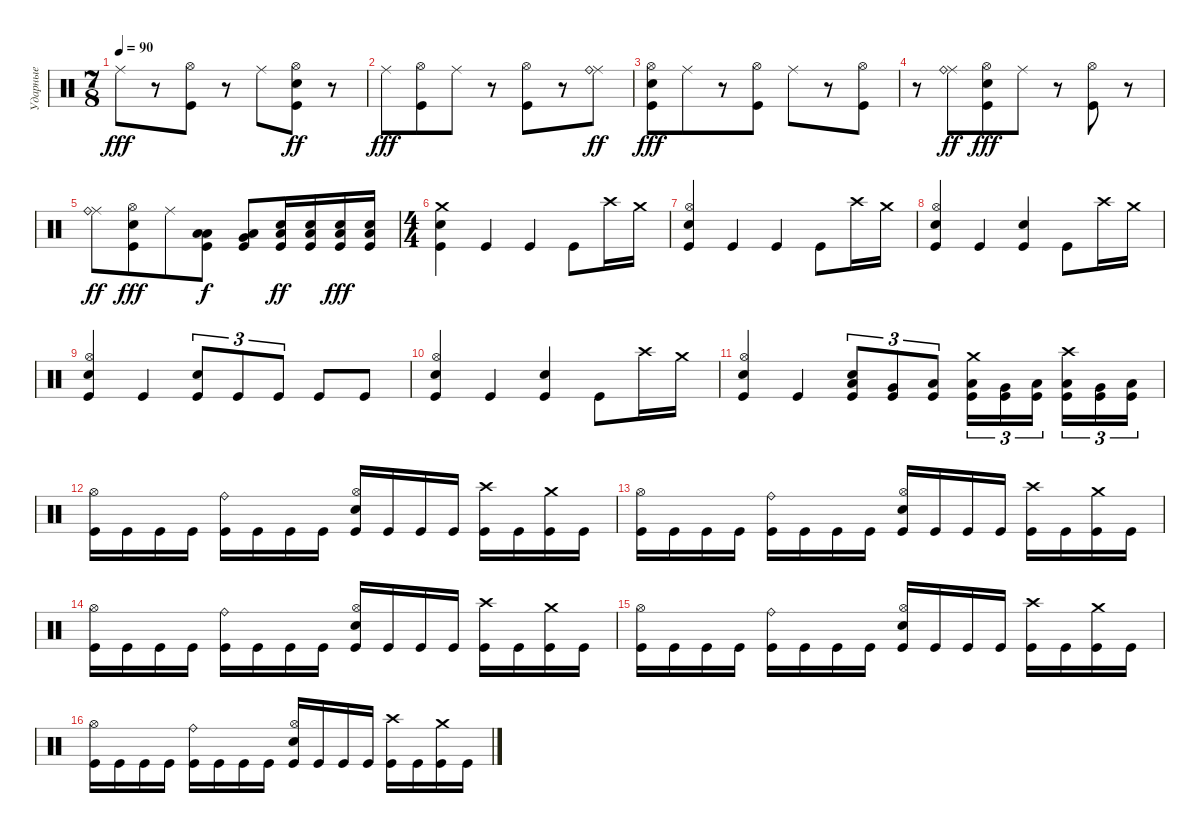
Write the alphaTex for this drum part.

\track ("Ударные" "Ударные") {instrument percussion}
\staff {score}
\articulation defaults
\ts (7 8)
\tempo 90
\clef neutral
\ks c "Ride (middle)".8{dy fff}
r.8 ("Kick (hit)" "Hi-Hat (open)").8 r.8 "Ride (middle)".8 ("Kick (hit)" "Hi-Hat (open)" "Snare (hit) 2").8{dy ff} r.8 |
"Ride (middle)".8{dy fff} ("Kick (hit)" "Hi-Hat (open)").8 "Ride (middle)".8 r.8 ("Kick (hit)" "Hi-Hat (open)").8 r.8 ("Ride (middle)" "Ride (bell)").8{dy ff} |
("Kick (hit)" "Hi-Hat (open)" "Snare (hit) 2").8{dy fff} "Ride (middle)".8 r.8 ("Kick (hit)" "Hi-Hat (open)").8 "Ride (middle)".8 r.8 ("Kick (hit)" "Hi-Hat (open)").8 |
r.8 ("Ride (middle)" "Ride (bell)").8{dy ff} ("Kick (hit)" "Hi-Hat (open)" "Snare (hit) 2").8{dy fff} "Ride (middle)".8 r.8 ("Kick (hit)" "Hi-Hat (open)").8 r.8 |
("Ride (middle)" "Ride (bell)").8{dy ff} ("Kick (hit)" "Hi-Hat (open)" "Snare (hit) 2").8{dy fff} "Ride (middle)".8 ("Kick (hit)" "Low Tom (hit)" "Low Floor Tom (hit)").8{dy f} ("Kick (hit)" "Very Low Tom (hit)" "Low Floor Tom (hit)").8 ("Kick (hit)" "Snare (hit) 2" "Low Floor Tom (hit)").16{dy ff} ("Kick (hit)" "Snare (hit) 2" "Low Floor Tom (hit)").16 ("Kick (hit)" "Snare (hit) 2" "Low Floor Tom (hit)").16{dy fff} ("Kick (hit)" "Snare (hit) 2" "Low Floor Tom (hit)").16 |
\ts (4 4)
("Kick (hit)" "Snare (hit) 2" "Crash medium (hit)").4 "Kick (hit)".4 "Kick (hit)".4 "Kick (hit)".8 "Crash high (hit)".16 "Crash medium (hit)".16 |
("Kick (hit)" "Snare (hit) 2" "Hi-Hat (open)").4 "Kick (hit)".4 "Kick (hit)".4 "Kick (hit)".8 "Crash high (hit)".16 "Crash medium (hit)".16 |
("Kick (hit)" "Snare (hit) 2" "Hi-Hat (open)").4 "Kick (hit)".4 ("Kick (hit)" "Snare (hit) 2").4 "Kick (hit)".8 "Crash high (hit)".16 "Crash medium (hit)".16 |
("Kick (hit)" "Snare (hit) 2" "Hi-Hat (open)").4 "Kick (hit)".4 ("Kick (hit)" "Snare (hit) 2").8{tu (3 2)} "Kick (hit)".8{tu (3 2)} "Kick (hit)".8{tu (3 2)} "Kick (hit)".8 "Kick (hit)".8 |
("Kick (hit)" "Snare (hit) 2" "Hi-Hat (open)").4 "Kick (hit)".4 ("Kick (hit)" "Snare (hit) 2").4 "Kick (hit)".8 "Crash high (hit)".16 "Crash medium (hit)".16 |
("Kick (hit)" "Snare (hit) 2" "Hi-Hat (open)").4 "Kick (hit)".4 ("Low Tom (hit)" "Kick (hit)" "Snare (hit) 2").8{tu (3 2)} ("Very Low Tom (hit)" "Kick (hit)").8{tu (3 2)} ("Low Floor Tom (hit)" "Kick (hit)").8{tu (3 2)} ("Low Tom (hit)" "Kick (hit)" "Crash medium (hit)").16{tu (3 2)} ("Very Low Tom (hit)" "Kick (hit)").16{tu (3 2)} ("Low Floor Tom (hit)" "Kick (hit)").16{tu (3 2) beam splitsecondary} ("Low Tom (hit)" "Kick (hit)" "Crash high (hit)").16{tu (3 2)} ("Very Low Tom (hit)" "Kick (hit)").16{tu (3 2)} ("Low Floor Tom (hit)" "Kick (hit)").16{tu (3 2)} |
("Kick (hit)" "Hi-Hat (open)").16 "Kick (hit)".16 "Kick (hit)".16 "Kick (hit)".16 ("Kick (hit)" "Ride (bell)").16 "Kick (hit)".16 "Kick (hit)".16 "Kick (hit)".16 ("Kick (hit)" "Snare (hit) 2" "Hi-Hat (open)").16 "Kick (hit)".16 "Kick (hit)".16 "Kick (hit)".16 ("Kick (hit)" "Crash high (hit)").16 "Kick (hit)".16 ("Kick (hit)" "Crash medium (hit)").16 "Kick (hit)".16 |
("Kick (hit)" "Hi-Hat (open)").16 "Kick (hit)".16 "Kick (hit)".16 "Kick (hit)".16 ("Kick (hit)" "Ride (bell)").16 "Kick (hit)".16 "Kick (hit)".16 "Kick (hit)".16 ("Kick (hit)" "Snare (hit) 2" "Hi-Hat (open)").16 "Kick (hit)".16 "Kick (hit)".16 "Kick (hit)".16 ("Kick (hit)" "Crash high (hit)").16 "Kick (hit)".16 ("Kick (hit)" "Crash medium (hit)").16 "Kick (hit)".16 |
("Kick (hit)" "Hi-Hat (open)").16 "Kick (hit)".16 "Kick (hit)".16 "Kick (hit)".16 ("Kick (hit)" "Ride (bell)").16 "Kick (hit)".16 "Kick (hit)".16 "Kick (hit)".16 ("Kick (hit)" "Snare (hit) 2" "Hi-Hat (open)").16 "Kick (hit)".16 "Kick (hit)".16 "Kick (hit)".16 ("Kick (hit)" "Crash high (hit)").16 "Kick (hit)".16 ("Kick (hit)" "Crash medium (hit)").16 "Kick (hit)".16 |
("Kick (hit)" "Hi-Hat (open)").16 "Kick (hit)".16 "Kick (hit)".16 "Kick (hit)".16 ("Kick (hit)" "Ride (bell)").16 "Kick (hit)".16 "Kick (hit)".16 "Kick (hit)".16 ("Kick (hit)" "Snare (hit) 2" "Hi-Hat (open)").16 "Kick (hit)".16 "Kick (hit)".16 "Kick (hit)".16 ("Kick (hit)" "Crash high (hit)").16 "Kick (hit)".16 ("Kick (hit)" "Crash medium (hit)").16 "Kick (hit)".16 |
("Kick (hit)" "Hi-Hat (open)").16 "Kick (hit)".16 "Kick (hit)".16 "Kick (hit)".16 ("Kick (hit)" "Ride (bell)").16 "Kick (hit)".16 "Kick (hit)".16 "Kick (hit)".16 ("Kick (hit)" "Snare (hit) 2" "Hi-Hat (open)").16 "Kick (hit)".16 "Kick (hit)".16 "Kick (hit)".16 ("Kick (hit)" "Crash high (hit)").16 "Kick (hit)".16 ("Kick (hit)" "Crash medium (hit)").16 "Kick (hit)".16
